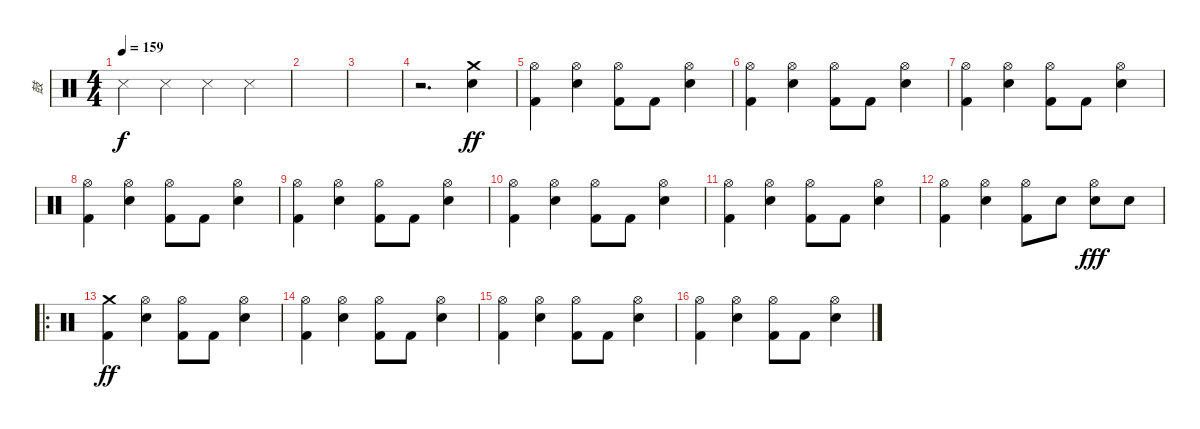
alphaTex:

\track ("鼓" "鼓") {instrument percussion}
\staff {score}
\articulation defaults
\ts (4 4)
\tempo 159
\clef neutral
\ks c "Snare (side stick) 3".4{dy f} "Snare (side stick) 3".4 "Snare (side stick) 3".4 "Snare (side stick) 3".4
|
|
|
r.2{d} ("Crash medium (hit)" "Electric Snare (hit)").4{dy ff} |
("Hi-Hat (open)" "Kick (hit) 2").4 ("Hi-Hat (open)" "Electric Snare (hit)").4 ("Hi-Hat (open)" "Kick (hit) 2").8 "Kick (hit) 2".8 ("Hi-Hat (open)" "Electric Snare (hit)").4 |
("Hi-Hat (open)" "Kick (hit) 2").4 ("Hi-Hat (open)" "Electric Snare (hit)").4 ("Hi-Hat (open)" "Kick (hit) 2").8 "Kick (hit) 2".8 ("Hi-Hat (open)" "Electric Snare (hit)").4 |
("Hi-Hat (open)" "Kick (hit) 2").4 ("Hi-Hat (open)" "Electric Snare (hit)").4 ("Hi-Hat (open)" "Kick (hit) 2").8 "Kick (hit) 2".8 ("Hi-Hat (open)" "Electric Snare (hit)").4 |
("Hi-Hat (open)" "Kick (hit) 2").4 ("Hi-Hat (open)" "Electric Snare (hit)").4 ("Hi-Hat (open)" "Kick (hit) 2").8 "Kick (hit) 2".8 ("Hi-Hat (open)" "Electric Snare (hit)").4 |
("Hi-Hat (open)" "Kick (hit) 2").4 ("Hi-Hat (open)" "Electric Snare (hit)").4 ("Hi-Hat (open)" "Kick (hit) 2").8 "Kick (hit) 2".8 ("Hi-Hat (open)" "Electric Snare (hit)").4 |
("Hi-Hat (open)" "Kick (hit) 2").4 ("Hi-Hat (open)" "Electric Snare (hit)").4 ("Hi-Hat (open)" "Kick (hit) 2").8 "Kick (hit) 2".8 ("Hi-Hat (open)" "Electric Snare (hit)").4 |
("Hi-Hat (open)" "Kick (hit) 2").4 ("Hi-Hat (open)" "Electric Snare (hit)").4 ("Hi-Hat (open)" "Kick (hit) 2").8 "Kick (hit) 2".8 ("Hi-Hat (open)" "Electric Snare (hit)").4 |
("Hi-Hat (open)" "Kick (hit) 2").4 ("Hi-Hat (open)" "Electric Snare (hit)").4 ("Hi-Hat (open)" "Kick (hit) 2").8 "Electric Snare (hit)".8 ("Hi-Hat (open)" "Electric Snare (hit)").8{dy fff} "Electric Snare (hit)".8 |
\ro
("Crash medium (hit)" "Kick (hit) 2").4{dy ff} ("Hi-Hat (open)" "Electric Snare (hit)").4 ("Hi-Hat (open)" "Kick (hit) 2").8 "Kick (hit) 2".8 ("Hi-Hat (open)" "Electric Snare (hit)").4 |
("Hi-Hat (open)" "Kick (hit) 2").4 ("Hi-Hat (open)" "Electric Snare (hit)").4 ("Hi-Hat (open)" "Kick (hit) 2").8 "Kick (hit) 2".8 ("Hi-Hat (open)" "Electric Snare (hit)").4 |
("Hi-Hat (open)" "Kick (hit) 2").4 ("Hi-Hat (open)" "Electric Snare (hit)").4 ("Hi-Hat (open)" "Kick (hit) 2").8 "Kick (hit) 2".8 ("Hi-Hat (open)" "Electric Snare (hit)").4 |
("Hi-Hat (open)" "Kick (hit) 2").4 ("Hi-Hat (open)" "Electric Snare (hit)").4 ("Hi-Hat (open)" "Kick (hit) 2").8 "Kick (hit) 2".8 ("Hi-Hat (open)" "Electric Snare (hit)").4
